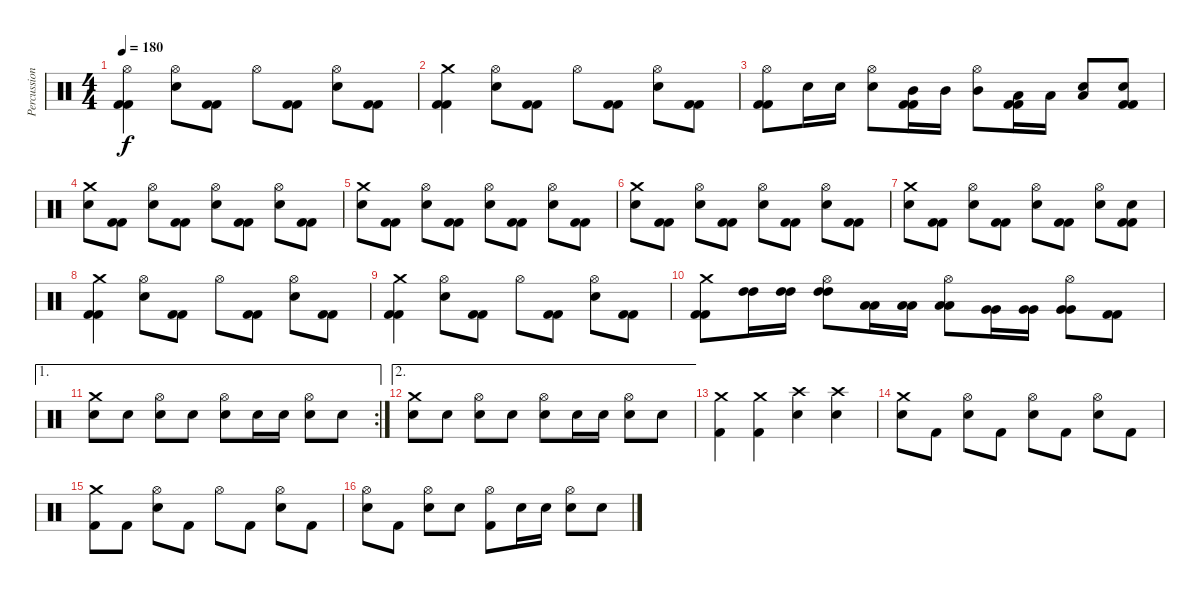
\track ("Percussioni" "Percussion") {instrument percussion}
\staff {score}
\articulation defaults
\ts (4 4)
\tempo 180
\clef neutral
\ks c
("Hi-Hat (open)" "Kick (hit) 2" "Kick (hit) 2").4{dy f} ("Hi-Hat (open)" "Electric Snare (hit)").8 ("Kick (hit) 2" "Kick (hit) 2").8 "Hi-Hat (open)".8 ("Kick (hit) 2" "Kick (hit) 2").8 ("Hi-Hat (open)" "Electric Snare (hit)").8 ("Kick (hit) 2" "Kick (hit) 2").8 |
("Crash medium (hit)" "Kick (hit) 2" "Kick (hit) 2").4 ("Hi-Hat (open)" "Electric Snare (hit)").8 ("Kick (hit) 2" "Kick (hit) 2").8 "Hi-Hat (open)".8 ("Kick (hit) 2" "Kick (hit) 2").8 ("Hi-Hat (open)" "Electric Snare (hit)").8 ("Kick (hit) 2" "Kick (hit) 2").8 |
("Hi-Hat (open)" "Kick (hit) 2" "Kick (hit) 2").8 "Electric Snare (hit)".16 "Electric Snare (hit)".16 ("Hi-Hat (open)" "Electric Snare (hit)").8 ("Mid Tom (hit)" "Kick (hit) 2" "Kick (hit) 2").16 "Mid Tom (hit)".16 ("Hi-Hat (open)" "Mid Tom (hit)").8 ("Low Tom (hit)" "Kick (hit) 2" "Kick (hit) 2").16 "Low Tom (hit)".16 ("Low Tom (hit)" "Electric Snare (hit)").8 ("Electric Snare (hit)" "Kick (hit) 2" "Kick (hit) 2").8 |
("Crash medium (hit)" "Electric Snare (hit)").8 ("Kick (hit) 2" "Kick (hit) 2").8 ("Hi-Hat (open)" "Electric Snare (hit)").8 ("Kick (hit) 2" "Kick (hit) 2").8 ("Hi-Hat (open)" "Electric Snare (hit)").8 ("Kick (hit) 2" "Kick (hit) 2").8 ("Hi-Hat (open)" "Electric Snare (hit)").8 ("Kick (hit) 2" "Kick (hit) 2").8 |
("Crash medium (hit)" "Electric Snare (hit)").8 ("Kick (hit) 2" "Kick (hit) 2").8 ("Hi-Hat (open)" "Electric Snare (hit)").8 ("Kick (hit) 2" "Kick (hit) 2").8 ("Hi-Hat (open)" "Electric Snare (hit)").8 ("Kick (hit) 2" "Kick (hit) 2").8 ("Hi-Hat (open)" "Electric Snare (hit)").8 ("Kick (hit) 2" "Kick (hit) 2").8 |
("Crash medium (hit)" "Electric Snare (hit)").8 ("Kick (hit) 2" "Kick (hit) 2").8 ("Hi-Hat (open)" "Electric Snare (hit)").8 ("Kick (hit) 2" "Kick (hit) 2").8 ("Hi-Hat (open)" "Electric Snare (hit)").8 ("Kick (hit) 2" "Kick (hit) 2").8 ("Hi-Hat (open)" "Electric Snare (hit)").8 ("Kick (hit) 2" "Kick (hit) 2").8 |
("Crash medium (hit)" "Electric Snare (hit)").8 ("Kick (hit) 2" "Kick (hit) 2").8 ("Hi-Hat (open)" "Electric Snare (hit)").8 ("Kick (hit) 2" "Kick (hit) 2").8 ("Hi-Hat (open)" "Electric Snare (hit)").8 ("Kick (hit) 2" "Kick (hit) 2").8 ("Hi-Hat (open)" "Electric Snare (hit)").8 ("Electric Snare (hit)" "Kick (hit) 2" "Kick (hit) 2").8 |
("Crash medium (hit)" "Kick (hit) 2" "Kick (hit) 2").4 ("Hi-Hat (open)" "Electric Snare (hit)").8 ("Kick (hit) 2" "Kick (hit) 2").8 "Hi-Hat (open)".8 ("Kick (hit) 2" "Kick (hit) 2").8 ("Hi-Hat (open)" "Electric Snare (hit)").8 ("Kick (hit) 2" "Kick (hit) 2").8 |
("Crash medium (hit)" "Kick (hit) 2" "Kick (hit) 2").4 ("Hi-Hat (open)" "Electric Snare (hit)").8 ("Kick (hit) 2" "Kick (hit) 2").8 "Hi-Hat (open)".8 ("Kick (hit) 2" "Kick (hit) 2").8 ("Hi-Hat (open)" "Electric Snare (hit)").8 ("Kick (hit) 2" "Kick (hit) 2").8 |
("Crash medium (hit)" "Kick (hit) 2" "Kick (hit) 2").8 ("High Tom (hit)" "High Tom (hit)").16 ("High Tom (hit)" "High Tom (hit)").16 ("Hi-Hat (open)" "High Tom (hit)" "High Tom (hit)").8 ("Low Tom (hit)" "Low Tom (hit)").16 ("Low Tom (hit)" "Low Tom (hit)").16 ("Hi-Hat (open)" "Low Tom (hit)" "Low Tom (hit)").8 ("Very Low Tom (hit)" "Very Low Tom (hit)").16 ("Very Low Tom (hit)" "Very Low Tom (hit)").16 ("Hi-Hat (open)" "Very Low Tom (hit)" "Very Low Tom (hit)").8 ("Kick (hit) 2" "Kick (hit) 2").8 |
\ae 1
\rc 2
("Crash medium (hit)" "Electric Snare (hit)").8 "Electric Snare (hit)".8 ("Hi-Hat (open)" "Electric Snare (hit)").8 "Electric Snare (hit)".8 ("Hi-Hat (open)" "Electric Snare (hit)").8 "Electric Snare (hit)".16 "Electric Snare (hit)".16 ("Hi-Hat (open)" "Electric Snare (hit)").8 "Electric Snare (hit)".8 |
\ae 2
("Crash medium (hit)" "Electric Snare (hit)").8 "Electric Snare (hit)".8 ("Hi-Hat (open)" "Electric Snare (hit)").8 "Electric Snare (hit)".8 ("Hi-Hat (open)" "Electric Snare (hit)").8 "Electric Snare (hit)".16 "Electric Snare (hit)".16 ("Hi-Hat (open)" "Electric Snare (hit)").8 "Electric Snare (hit)".8 |
("Crash medium (hit)" "Kick (hit) 2").4 ("Crash medium (hit)" "Kick (hit) 2").4 ("Crash high (hit)" "Electric Snare (hit)").4 ("Crash high (hit)" "Electric Snare (hit)").4 |
("Crash medium (hit)" "Electric Snare (hit)").8 "Kick (hit) 2".8 ("Hi-Hat (open)" "Electric Snare (hit)").8 "Kick (hit) 2".8 ("Hi-Hat (open)" "Electric Snare (hit)").8 "Kick (hit) 2".8 ("Hi-Hat (open)" "Electric Snare (hit)").8 "Kick (hit) 2".8 |
("Crash medium (hit)" "Kick (hit) 2").8 "Kick (hit) 2".8 ("Hi-Hat (open)" "Electric Snare (hit)").8 "Kick (hit) 2".8 "Hi-Hat (open)".8 "Kick (hit) 2".8 ("Hi-Hat (open)" "Electric Snare (hit)").8 "Kick (hit) 2".8 |
("Hi-Hat (open)" "Electric Snare (hit)").8 "Kick (hit) 2".8 ("Hi-Hat (open)" "Electric Snare (hit)").8 "Electric Snare (hit)".8 ("Hi-Hat (open)" "Kick (hit) 2").8 "Electric Snare (hit)".16 "Electric Snare (hit)".16 ("Hi-Hat (open)" "Electric Snare (hit)").8 "Electric Snare (hit)".8
